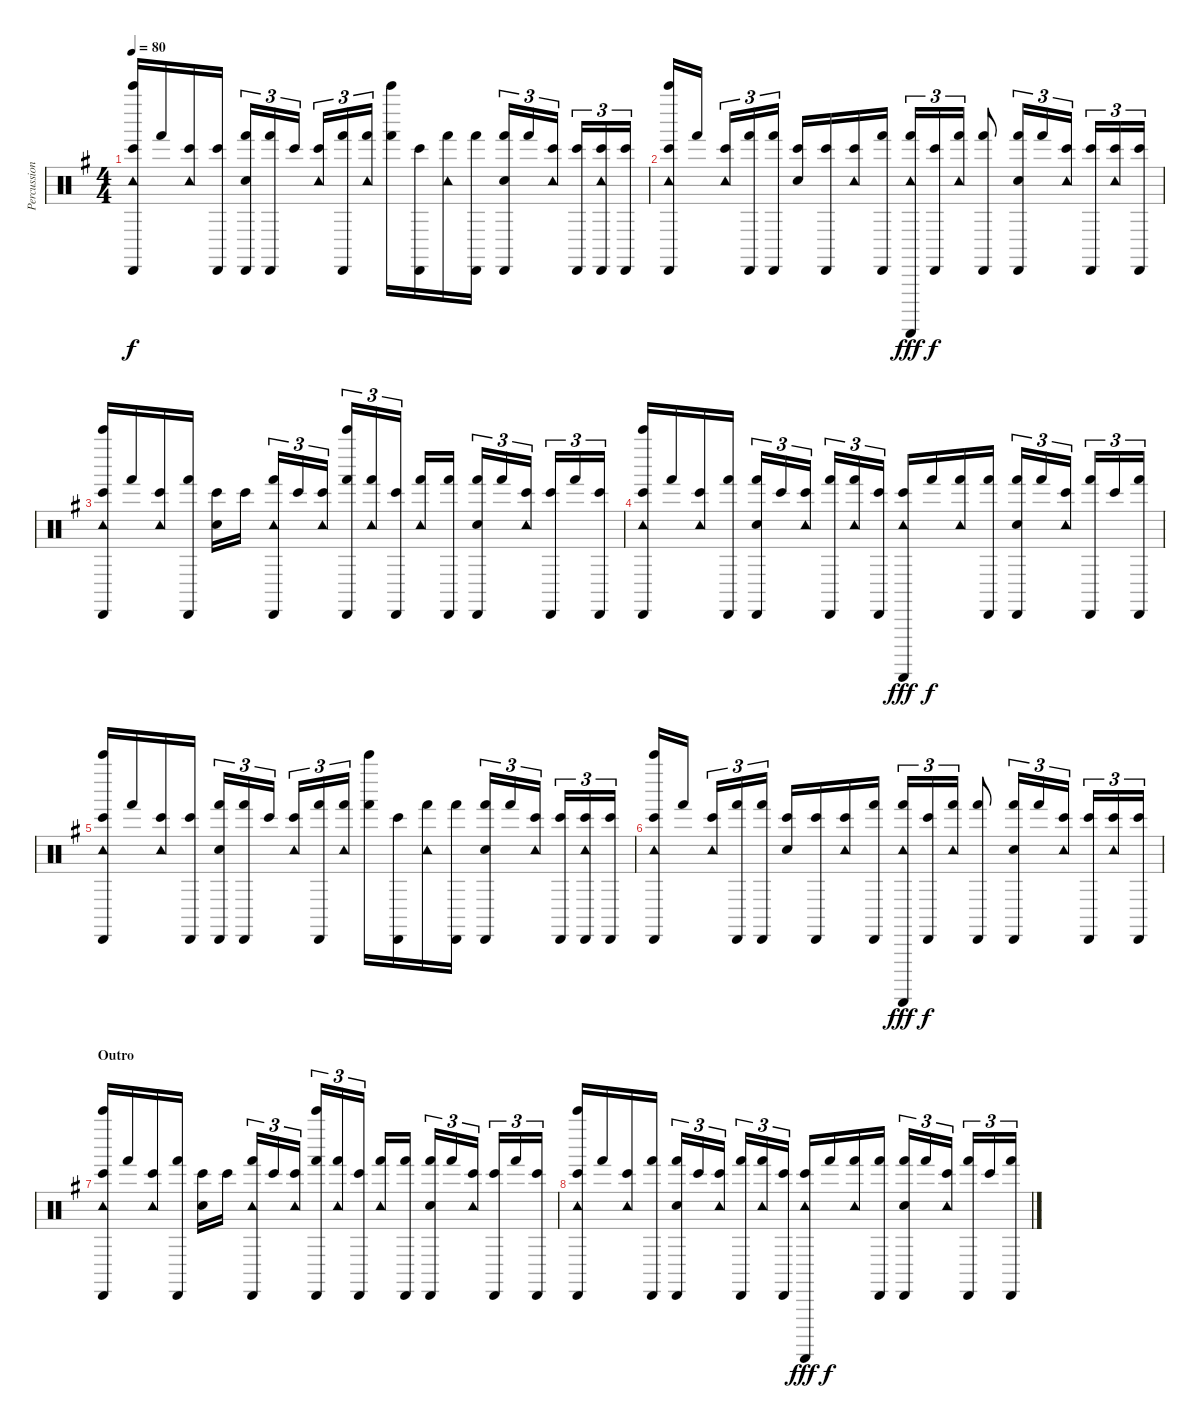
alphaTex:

\track ("Percussion" "Percussion") {instrument percussion}
\staff {score}
\articulation defaults
\ts (4 4)
\tempo 80
\clef neutral
\ks g
("Cabasa (hit)" "Bell Tree (hit)" "Tambourine (hit)" "Bongo High (hit)").16{dy f} "Hand (hit)".16 ("Tambourine (hit)" "Bongo High (hit)").16 ("Cabasa (hit)" "Bongo High (hit)").16 ("Cabasa (hit)" "Hand Clap (hit)" "Hand (hit)").16{tu (3 2)} ("Cabasa (hit)" "Hand (hit)").16{tu (3 2)} "Bongo High (hit)".16{tu (3 2)} ("Tambourine (hit)" "Bongo High (hit)").16{tu (3 2)} ("Cabasa (hit)" "Hand (hit)").16{tu (3 2)} ("Tambourine (hit)" "Hand (hit)").16{tu (3 2)} ("Bell Tree (hit)" "Hand (hit)").16 ("Cabasa (hit)" "Bongo High (hit)").16 ("Tambourine (hit)" "Hand (hit)").16 ("Cabasa (hit)" "Hand (hit)").16 ("Cabasa (hit)" "Hand Clap (hit)" "Hand (hit)").16{tu (3 2)} "Hand (hit)".16{tu (3 2)} ("Tambourine (hit)" "Bongo High (hit)").16{tu (3 2)} ("Cabasa (hit)" "Bongo High (hit)").16{tu (3 2)} ("Cabasa (hit)" "Tambourine (hit)" "Bongo High (hit)").16{tu (3 2)} ("Cabasa (hit)" "Bongo High (hit)").16{tu (3 2)} |
("Cabasa (hit)" "Bell Tree (hit)" "Tambourine (hit)" "Bongo High (hit)").16 "Hand (hit)".16 ("Tambourine (hit)" "Bongo High (hit)").16{tu (3 2)} ("Cabasa (hit)" "Hand (hit)").16{tu (3 2)} ("Cabasa (hit)" "Hand (hit)").16{tu (3 2)} ("Hand Clap (hit)" "Bongo High (hit)").16 ("Cabasa (hit)" "Bongo High (hit)").16 ("Tambourine (hit)" "Bongo High (hit)").16 ("Cabasa (hit)" "Hand (hit)").16 ("Guiro (scrap-return)" "Tambourine (hit)" "Hand (hit)").16{tu (3 2) dy fff} ("Cabasa (hit)" "Bongo High (hit)").16{tu (3 2) dy f} ("Tambourine (hit)" "Hand (hit)").16{tu (3 2)} ("Cabasa (hit)" "Hand (hit)").8 ("Cabasa (hit)" "Hand Clap (hit)" "Hand (hit)").16{tu (3 2)} "Hand (hit)".16{tu (3 2)} ("Tambourine (hit)" "Bongo High (hit)").16{tu (3 2)} ("Cabasa (hit)" "Bongo High (hit)").16{tu (3 2)} ("Tambourine (hit)" "Bongo High (hit)").16{tu (3 2)} ("Cabasa (hit)" "Bongo High (hit)").16{tu (3 2)} |
("Cabasa (hit)" "Bell Tree (hit)" "Tambourine (hit)" "Bongo High (hit)").16 "Hand (hit)".16 ("Tambourine (hit)" "Bongo High (hit)").16 ("Cabasa (hit)" "Hand (hit)").16 ("Hand Clap (hit)" "Bongo High (hit)").16 "Bongo High (hit)".16 ("Cabasa (hit)" "Tambourine (hit)" "Hand (hit)").16{tu (3 2)} "Bongo High (hit)".16{tu (3 2)} ("Tambourine (hit)" "Bongo High (hit)").16{tu (3 2)} ("Cabasa (hit)" "Bell Tree (hit)" "Hand (hit)").16{tu (3 2)} ("Tambourine (hit)" "Hand (hit)").16{tu (3 2)} ("Cabasa (hit)" "Bongo High (hit)").16{tu (3 2)} ("Tambourine (hit)" "Hand (hit)").16 ("Cabasa (hit)" "Hand (hit)").16 ("Cabasa (hit)" "Hand Clap (hit)" "Hand (hit)").16{tu (3 2)} "Hand (hit)".16{tu (3 2)} ("Tambourine (hit)" "Bongo High (hit)").16{tu (3 2)} ("Cabasa (hit)" "Bongo High (hit)").16{tu (3 2)} "Hand (hit)".16{tu (3 2)} ("Cabasa (hit)" "Bongo High (hit)").16{tu (3 2)} |
("Cabasa (hit)" "Bell Tree (hit)" "Tambourine (hit)" "Bongo High (hit)").16 "Hand (hit)".16 ("Tambourine (hit)" "Bongo High (hit)").16 ("Cabasa (hit)" "Hand (hit)").16 ("Cabasa (hit)" "Hand Clap (hit)" "Hand (hit)").16{tu (3 2)} "Bongo High (hit)".16{tu (3 2)} ("Tambourine (hit)" "Bongo High (hit)").16{tu (3 2)} ("Cabasa (hit)" "Hand (hit)").16{tu (3 2)} ("Tambourine (hit)" "Hand (hit)").16{tu (3 2)} ("Cabasa (hit)" "Bongo High (hit)").16{tu (3 2)} ("Guiro (scrap-return)" "Tambourine (hit)" "Bongo High (hit)").16{dy fff} "Hand (hit)".16{dy f} ("Tambourine (hit)" "Hand (hit)").16 ("Cabasa (hit)" "Hand (hit)").16 ("Cabasa (hit)" "Hand Clap (hit)" "Hand (hit)").16{tu (3 2)} "Hand (hit)".16{tu (3 2)} ("Tambourine (hit)" "Bongo High (hit)").16{tu (3 2)} ("Cabasa (hit)" "Hand (hit)").16{tu (3 2)} "Bongo High (hit)".16{tu (3 2)} ("Cabasa (hit)" "Hand (hit)").16{tu (3 2)} |
("Cabasa (hit)" "Bell Tree (hit)" "Tambourine (hit)" "Bongo High (hit)").16 "Hand (hit)".16 ("Tambourine (hit)" "Bongo High (hit)").16 ("Cabasa (hit)" "Bongo High (hit)").16 ("Cabasa (hit)" "Hand Clap (hit)" "Hand (hit)").16{tu (3 2)} ("Cabasa (hit)" "Hand (hit)").16{tu (3 2)} "Bongo High (hit)".16{tu (3 2)} ("Tambourine (hit)" "Bongo High (hit)").16{tu (3 2)} ("Cabasa (hit)" "Hand (hit)").16{tu (3 2)} ("Tambourine (hit)" "Hand (hit)").16{tu (3 2)} ("Bell Tree (hit)" "Hand (hit)").16 ("Cabasa (hit)" "Bongo High (hit)").16 ("Tambourine (hit)" "Hand (hit)").16 ("Cabasa (hit)" "Hand (hit)").16 ("Cabasa (hit)" "Hand Clap (hit)" "Hand (hit)").16{tu (3 2)} "Hand (hit)".16{tu (3 2)} ("Tambourine (hit)" "Bongo High (hit)").16{tu (3 2)} ("Cabasa (hit)" "Bongo High (hit)").16{tu (3 2)} ("Cabasa (hit)" "Tambourine (hit)" "Bongo High (hit)").16{tu (3 2)} ("Cabasa (hit)" "Bongo High (hit)").16{tu (3 2)} |
("Cabasa (hit)" "Bell Tree (hit)" "Tambourine (hit)" "Bongo High (hit)").16 "Hand (hit)".16 ("Tambourine (hit)" "Bongo High (hit)").16{tu (3 2)} ("Cabasa (hit)" "Hand (hit)").16{tu (3 2)} ("Cabasa (hit)" "Hand (hit)").16{tu (3 2)} ("Hand Clap (hit)" "Bongo High (hit)").16 ("Cabasa (hit)" "Bongo High (hit)").16 ("Tambourine (hit)" "Bongo High (hit)").16 ("Cabasa (hit)" "Hand (hit)").16 ("Guiro (scrap-return)" "Tambourine (hit)" "Hand (hit)").16{tu (3 2) dy fff} ("Cabasa (hit)" "Bongo High (hit)").16{tu (3 2) dy f} ("Tambourine (hit)" "Hand (hit)").16{tu (3 2)} ("Cabasa (hit)" "Hand (hit)").8 ("Cabasa (hit)" "Hand Clap (hit)" "Hand (hit)").16{tu (3 2)} "Hand (hit)".16{tu (3 2)} ("Tambourine (hit)" "Bongo High (hit)").16{tu (3 2)} ("Cabasa (hit)" "Bongo High (hit)").16{tu (3 2)} ("Tambourine (hit)" "Bongo High (hit)").16{tu (3 2)} ("Cabasa (hit)" "Bongo High (hit)").16{tu (3 2)} |
\section ("" "Outro")
("Cabasa (hit)" "Bell Tree (hit)" "Tambourine (hit)" "Bongo High (hit)").16 "Hand (hit)".16 ("Tambourine (hit)" "Bongo High (hit)").16 ("Cabasa (hit)" "Hand (hit)").16 ("Hand Clap (hit)" "Bongo High (hit)").16 "Bongo High (hit)".16 ("Cabasa (hit)" "Tambourine (hit)" "Hand (hit)").16{tu (3 2)} "Bongo High (hit)".16{tu (3 2)} ("Tambourine (hit)" "Bongo High (hit)").16{tu (3 2)} ("Cabasa (hit)" "Bell Tree (hit)" "Hand (hit)").16{tu (3 2)} ("Tambourine (hit)" "Hand (hit)").16{tu (3 2)} ("Cabasa (hit)" "Bongo High (hit)").16{tu (3 2)} ("Tambourine (hit)" "Hand (hit)").16 ("Cabasa (hit)" "Hand (hit)").16 ("Cabasa (hit)" "Hand Clap (hit)" "Hand (hit)").16{tu (3 2)} "Hand (hit)".16{tu (3 2)} ("Tambourine (hit)" "Bongo High (hit)").16{tu (3 2)} ("Cabasa (hit)" "Bongo High (hit)").16{tu (3 2)} "Hand (hit)".16{tu (3 2)} ("Cabasa (hit)" "Bongo High (hit)").16{tu (3 2)} |
("Cabasa (hit)" "Bell Tree (hit)" "Tambourine (hit)" "Bongo High (hit)").16 "Hand (hit)".16 ("Tambourine (hit)" "Bongo High (hit)").16 ("Cabasa (hit)" "Hand (hit)").16 ("Cabasa (hit)" "Hand Clap (hit)" "Hand (hit)").16{tu (3 2)} "Bongo High (hit)".16{tu (3 2)} ("Tambourine (hit)" "Bongo High (hit)").16{tu (3 2)} ("Cabasa (hit)" "Hand (hit)").16{tu (3 2)} ("Tambourine (hit)" "Hand (hit)").16{tu (3 2)} ("Cabasa (hit)" "Bongo High (hit)").16{tu (3 2)} ("Guiro (scrap-return)" "Tambourine (hit)" "Bongo High (hit)").16{dy fff} "Hand (hit)".16{dy f} ("Tambourine (hit)" "Hand (hit)").16 ("Cabasa (hit)" "Hand (hit)").16 ("Cabasa (hit)" "Hand Clap (hit)" "Hand (hit)").16{tu (3 2)} "Hand (hit)".16{tu (3 2)} ("Tambourine (hit)" "Bongo High (hit)").16{tu (3 2)} ("Cabasa (hit)" "Hand (hit)").16{tu (3 2)} "Bongo High (hit)".16{tu (3 2)} ("Cabasa (hit)" "Hand (hit)").16{tu (3 2)}
